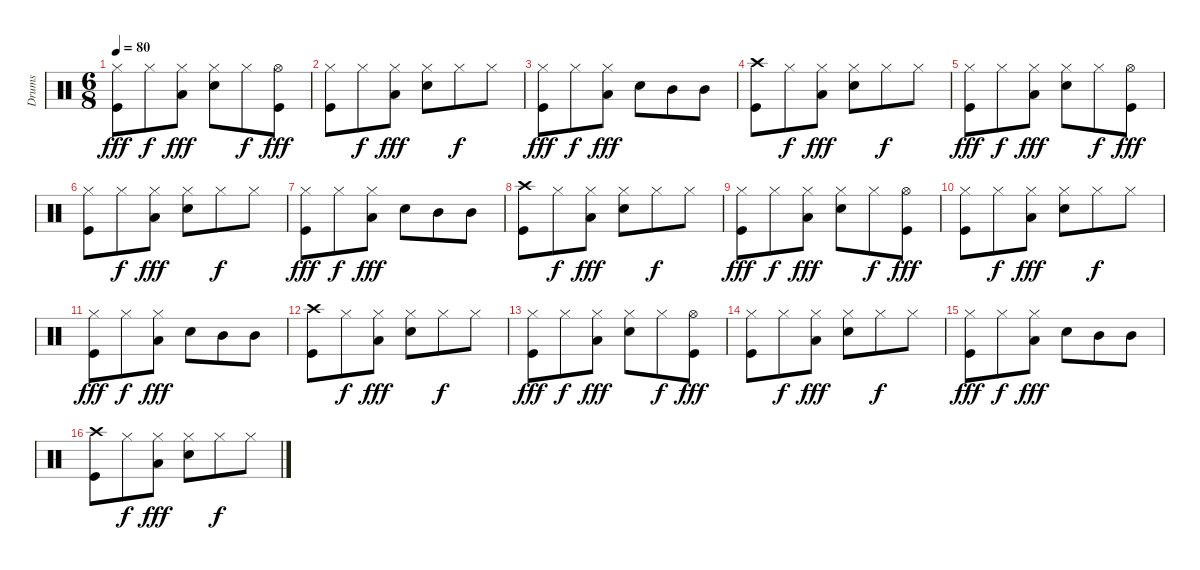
\track ("Drums" "Drums") {instrument percussion}
\staff {score}
\articulation defaults
\ts (6 8)
\tempo 80
\clef neutral
\ks c
("Hi-Hat (closed)" "Kick (hit)").8{dy fff} "Hi-Hat (closed)".8{dy f} ("Hi-Hat (closed)" "Low Tom (hit)").8{dy fff} ("Hi-Hat (closed)" "Electric Snare (hit)").8 "Hi-Hat (closed)".8{dy f} ("Hi-Hat (open)" "Kick (hit)").8{dy fff} |
("Hi-Hat (closed)" "Kick (hit)").8 "Hi-Hat (closed)".8{dy f} ("Hi-Hat (closed)" "Low Tom (hit)").8{dy fff} ("Hi-Hat (closed)" "Electric Snare (hit)").8 "Hi-Hat (closed)".8{dy f} "Hi-Hat (closed)".8 |
("Hi-Hat (closed)" "Kick (hit)").8{dy fff} "Hi-Hat (closed)".8{dy f} ("Hi-Hat (closed)" "Low Tom (hit)").8{dy fff} "Electric Snare (hit)".8 "Mid Tom (hit)".8 "Mid Tom (hit)".8 |
("Crash high (hit)" "Kick (hit)").8 "Hi-Hat (closed)".8{dy f} ("Hi-Hat (closed)" "Low Tom (hit)").8{dy fff} ("Hi-Hat (closed)" "Electric Snare (hit)").8 "Hi-Hat (closed)".8{dy f} "Hi-Hat (closed)".8 |
("Hi-Hat (closed)" "Kick (hit)").8{dy fff} "Hi-Hat (closed)".8{dy f} ("Hi-Hat (closed)" "Low Tom (hit)").8{dy fff} ("Hi-Hat (closed)" "Electric Snare (hit)").8 "Hi-Hat (closed)".8{dy f} ("Hi-Hat (open)" "Kick (hit)").8{dy fff} |
("Hi-Hat (closed)" "Kick (hit)").8 "Hi-Hat (closed)".8{dy f} ("Hi-Hat (closed)" "Low Tom (hit)").8{dy fff} ("Hi-Hat (closed)" "Electric Snare (hit)").8 "Hi-Hat (closed)".8{dy f} "Hi-Hat (closed)".8 |
("Hi-Hat (closed)" "Kick (hit)").8{dy fff} "Hi-Hat (closed)".8{dy f} ("Hi-Hat (closed)" "Low Tom (hit)").8{dy fff} "Electric Snare (hit)".8 "Mid Tom (hit)".8 "Mid Tom (hit)".8 |
("Crash high (hit)" "Kick (hit)").8 "Hi-Hat (closed)".8{dy f} ("Hi-Hat (closed)" "Low Tom (hit)").8{dy fff} ("Hi-Hat (closed)" "Electric Snare (hit)").8 "Hi-Hat (closed)".8{dy f} "Hi-Hat (closed)".8 |
("Hi-Hat (closed)" "Kick (hit)").8{dy fff} "Hi-Hat (closed)".8{dy f} ("Hi-Hat (closed)" "Low Tom (hit)").8{dy fff} ("Hi-Hat (closed)" "Electric Snare (hit)").8 "Hi-Hat (closed)".8{dy f} ("Hi-Hat (open)" "Kick (hit)").8{dy fff} |
("Hi-Hat (closed)" "Kick (hit)").8 "Hi-Hat (closed)".8{dy f} ("Hi-Hat (closed)" "Low Tom (hit)").8{dy fff} ("Hi-Hat (closed)" "Electric Snare (hit)").8 "Hi-Hat (closed)".8{dy f} "Hi-Hat (closed)".8 |
("Hi-Hat (closed)" "Kick (hit)").8{dy fff} "Hi-Hat (closed)".8{dy f} ("Hi-Hat (closed)" "Low Tom (hit)").8{dy fff} "Electric Snare (hit)".8 "Mid Tom (hit)".8 "Mid Tom (hit)".8 |
("Crash high (hit)" "Kick (hit)").8 "Hi-Hat (closed)".8{dy f} ("Hi-Hat (closed)" "Low Tom (hit)").8{dy fff} ("Hi-Hat (closed)" "Electric Snare (hit)").8 "Hi-Hat (closed)".8{dy f} "Hi-Hat (closed)".8 |
("Hi-Hat (closed)" "Kick (hit)").8{dy fff} "Hi-Hat (closed)".8{dy f} ("Hi-Hat (closed)" "Low Tom (hit)").8{dy fff} ("Hi-Hat (closed)" "Electric Snare (hit)").8 "Hi-Hat (closed)".8{dy f} ("Hi-Hat (open)" "Kick (hit)").8{dy fff} |
("Hi-Hat (closed)" "Kick (hit)").8 "Hi-Hat (closed)".8{dy f} ("Hi-Hat (closed)" "Low Tom (hit)").8{dy fff} ("Hi-Hat (closed)" "Electric Snare (hit)").8 "Hi-Hat (closed)".8{dy f} "Hi-Hat (closed)".8 |
("Hi-Hat (closed)" "Kick (hit)").8{dy fff} "Hi-Hat (closed)".8{dy f} ("Hi-Hat (closed)" "Low Tom (hit)").8{dy fff} "Electric Snare (hit)".8 "Mid Tom (hit)".8 "Mid Tom (hit)".8 |
("Crash high (hit)" "Kick (hit)").8 "Hi-Hat (closed)".8{dy f} ("Hi-Hat (closed)" "Low Tom (hit)").8{dy fff} ("Hi-Hat (closed)" "Electric Snare (hit)").8 "Hi-Hat (closed)".8{dy f} "Hi-Hat (closed)".8
